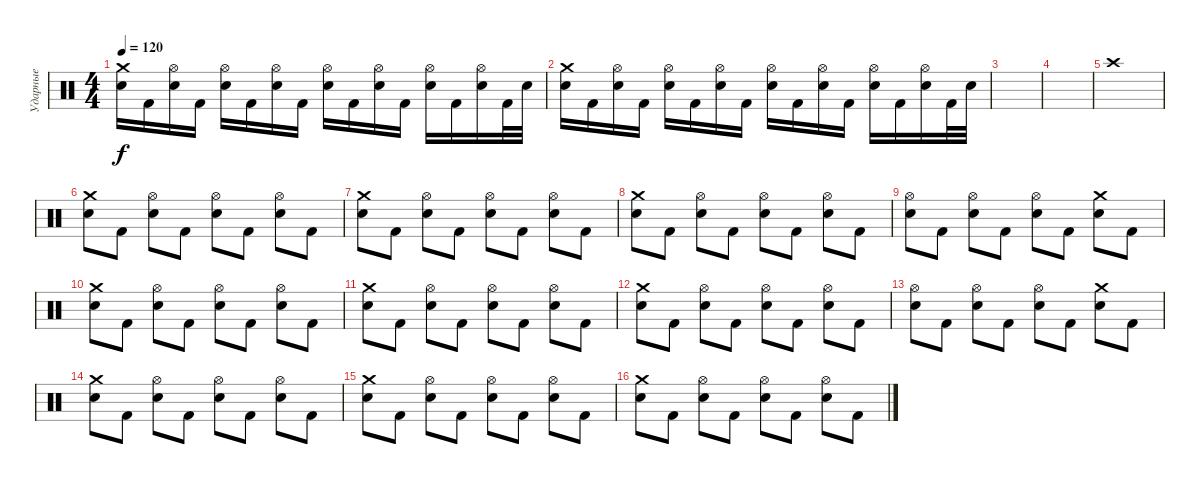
\track ("Ударные" "Ударные") {instrument percussion}
\staff {score}
\articulation defaults
\ts (4 4)
\tempo 120
\clef neutral
\ks c
("Crash medium (hit)" "Electric Snare (hit)").16{dy f} "Kick (hit) 2".16 ("Hi-Hat (open)" "Electric Snare (hit)").16 "Kick (hit) 2".16 ("Hi-Hat (open)" "Electric Snare (hit)").16 "Kick (hit) 2".16 ("Hi-Hat (open)" "Electric Snare (hit)").16 "Kick (hit) 2".16 ("Hi-Hat (open)" "Electric Snare (hit)").16 "Kick (hit) 2".16 ("Hi-Hat (open)" "Electric Snare (hit)").16 "Kick (hit) 2".16 ("Hi-Hat (open)" "Electric Snare (hit)").16 "Kick (hit) 2".16 ("Hi-Hat (open)" "Electric Snare (hit)").16 "Kick (hit) 2".32 "Electric Snare (hit)".32 |
("Crash medium (hit)" "Electric Snare (hit)").16 "Kick (hit) 2".16 ("Hi-Hat (open)" "Electric Snare (hit)").16 "Kick (hit) 2".16 ("Hi-Hat (open)" "Electric Snare (hit)").16 "Kick (hit) 2".16 ("Hi-Hat (open)" "Electric Snare (hit)").16 "Kick (hit) 2".16 ("Hi-Hat (open)" "Electric Snare (hit)").16 "Kick (hit) 2".16 ("Hi-Hat (open)" "Electric Snare (hit)").16 "Kick (hit) 2".16 ("Hi-Hat (open)" "Electric Snare (hit)").16 "Kick (hit) 2".16 ("Hi-Hat (open)" "Electric Snare (hit)").16 "Kick (hit) 2".32 "Electric Snare (hit)".32 |
|
|
"Crash high (hit)".1 |
("Crash medium (hit)" "Electric Snare (hit)").8 "Kick (hit) 2".8 ("Hi-Hat (open)" "Electric Snare (hit)").8 "Kick (hit) 2".8 ("Hi-Hat (open)" "Electric Snare (hit)").8 "Kick (hit) 2".8 ("Hi-Hat (open)" "Electric Snare (hit)").8 "Kick (hit) 2".8 |
("Crash medium (hit)" "Electric Snare (hit)").8 "Kick (hit) 2".8 ("Hi-Hat (open)" "Electric Snare (hit)").8 "Kick (hit) 2".8 ("Hi-Hat (open)" "Electric Snare (hit)").8 "Kick (hit) 2".8 ("Hi-Hat (open)" "Electric Snare (hit)").8 "Kick (hit) 2".8 |
("Crash medium (hit)" "Electric Snare (hit)").8 "Kick (hit) 2".8 ("Hi-Hat (open)" "Electric Snare (hit)").8 "Kick (hit) 2".8 ("Hi-Hat (open)" "Electric Snare (hit)").8 "Kick (hit) 2".8 ("Hi-Hat (open)" "Electric Snare (hit)").8 "Kick (hit) 2".8 |
("Hi-Hat (open)" "Electric Snare (hit)").8 "Kick (hit) 2".8 ("Hi-Hat (open)" "Electric Snare (hit)").8 "Kick (hit) 2".8 ("Hi-Hat (open)" "Electric Snare (hit)").8 "Kick (hit) 2".8 ("Crash medium (hit)" "Electric Snare (hit)").8 "Kick (hit) 2".8 |
("Crash medium (hit)" "Electric Snare (hit)").8 "Kick (hit) 2".8 ("Hi-Hat (open)" "Electric Snare (hit)").8 "Kick (hit) 2".8 ("Hi-Hat (open)" "Electric Snare (hit)").8 "Kick (hit) 2".8 ("Hi-Hat (open)" "Electric Snare (hit)").8 "Kick (hit) 2".8 |
("Crash medium (hit)" "Electric Snare (hit)").8 "Kick (hit) 2".8 ("Hi-Hat (open)" "Electric Snare (hit)").8 "Kick (hit) 2".8 ("Hi-Hat (open)" "Electric Snare (hit)").8 "Kick (hit) 2".8 ("Hi-Hat (open)" "Electric Snare (hit)").8 "Kick (hit) 2".8 |
("Crash medium (hit)" "Electric Snare (hit)").8 "Kick (hit) 2".8 ("Hi-Hat (open)" "Electric Snare (hit)").8 "Kick (hit) 2".8 ("Hi-Hat (open)" "Electric Snare (hit)").8 "Kick (hit) 2".8 ("Hi-Hat (open)" "Electric Snare (hit)").8 "Kick (hit) 2".8 |
("Hi-Hat (open)" "Electric Snare (hit)").8 "Kick (hit) 2".8 ("Hi-Hat (open)" "Electric Snare (hit)").8 "Kick (hit) 2".8 ("Hi-Hat (open)" "Electric Snare (hit)").8 "Kick (hit) 2".8 ("Crash medium (hit)" "Electric Snare (hit)").8 "Kick (hit) 2".8 |
("Crash medium (hit)" "Electric Snare (hit)").8 "Kick (hit) 2".8 ("Hi-Hat (open)" "Electric Snare (hit)").8 "Kick (hit) 2".8 ("Hi-Hat (open)" "Electric Snare (hit)").8 "Kick (hit) 2".8 ("Hi-Hat (open)" "Electric Snare (hit)").8 "Kick (hit) 2".8 |
("Crash medium (hit)" "Electric Snare (hit)").8 "Kick (hit) 2".8 ("Hi-Hat (open)" "Electric Snare (hit)").8 "Kick (hit) 2".8 ("Hi-Hat (open)" "Electric Snare (hit)").8 "Kick (hit) 2".8 ("Hi-Hat (open)" "Electric Snare (hit)").8 "Kick (hit) 2".8 |
("Crash medium (hit)" "Electric Snare (hit)").8 "Kick (hit) 2".8 ("Hi-Hat (open)" "Electric Snare (hit)").8 "Kick (hit) 2".8 ("Hi-Hat (open)" "Electric Snare (hit)").8 "Kick (hit) 2".8 ("Hi-Hat (open)" "Electric Snare (hit)").8 "Kick (hit) 2".8
